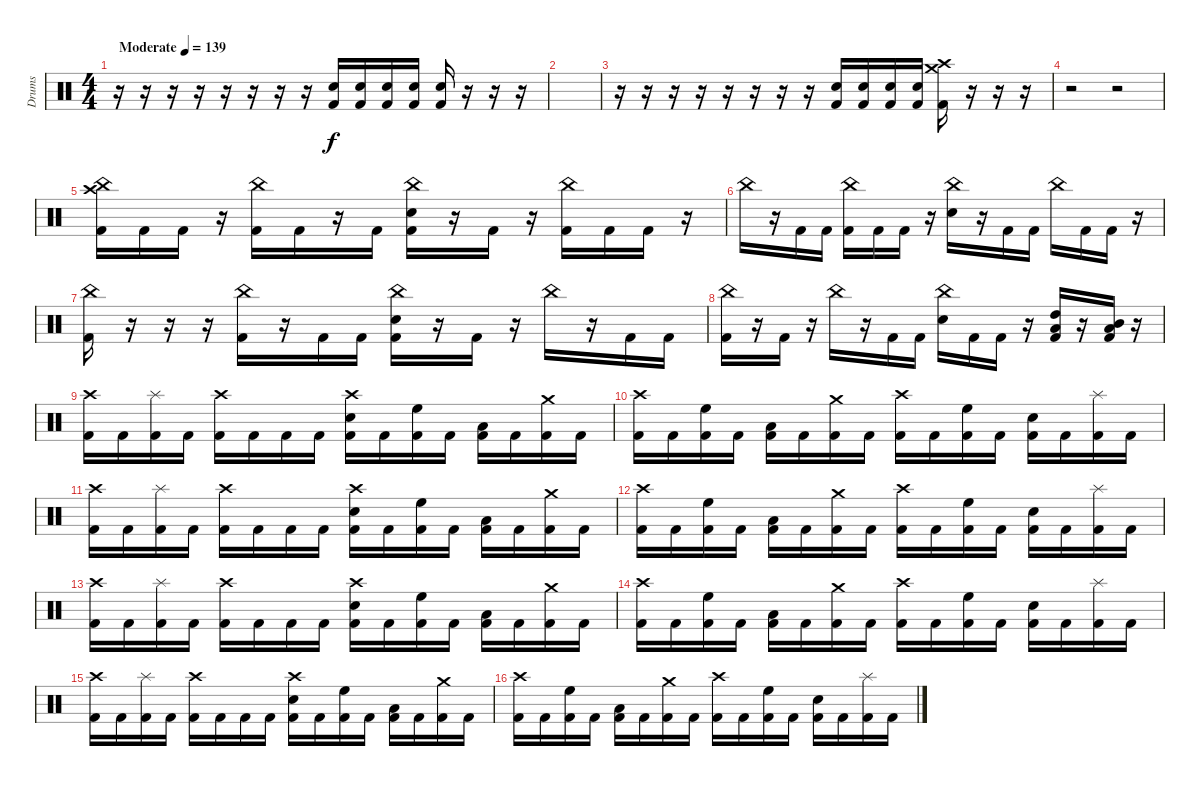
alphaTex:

\track ("Drums" "Drums") {instrument percussion}
\staff {score}
\articulation defaults
\ts (4 4)
\tempo (139 "Moderate")
\clef neutral
\ks c
r.16{dy f} r.16 r.16 r.16 r.16 r.16 r.16 r.16 ("Electric Snare (hit)" "Kick (hit) 2").16 ("Electric Snare (hit)" "Kick (hit) 2").16 ("Electric Snare (hit)" "Kick (hit) 2").16 ("Electric Snare (hit)" "Kick (hit) 2").16 ("Electric Snare (hit)" "Kick (hit) 2").16 r.16 r.16 r.16 |
|
r.16 r.16 r.16 r.16 r.16 r.16 r.16 r.16 ("Electric Snare (hit)" "Kick (hit) 2").16 ("Electric Snare (hit)" "Kick (hit) 2").16 ("Electric Snare (hit)" "Kick (hit) 2").16 ("Electric Snare (hit)" "Kick (hit) 2").16 ("Crash high (hit)" "Crash medium (hit)" "Kick (hit) 2").16 r.16 r.16 r.16 |
r.2 r.2{volume 0} |
("China (hit)" "Crash high (hit)" "Kick (hit) 2").16{volume 13} "Kick (hit) 2".16 "Kick (hit) 2".16 r.16 ("China (hit)" "Kick (hit) 2").16 "Kick (hit) 2".16 r.16 "Kick (hit) 2".16 ("China (hit)" "Electric Snare (hit)" "Kick (hit) 2").16 r.16 "Kick (hit) 2".16 r.16 ("China (hit)" "Kick (hit) 2").16 "Kick (hit) 2".16 "Kick (hit) 2".16 r.16 |
"China (hit)".16 r.16 "Kick (hit) 2".16 "Kick (hit) 2".16 ("China (hit)" "Kick (hit) 2").16 "Kick (hit) 2".16 "Kick (hit) 2".16 r.16 ("China (hit)" "Electric Snare (hit)").16 r.16 "Kick (hit) 2".16 "Kick (hit) 2".16 "China (hit)".16 "Kick (hit) 2".16 "Kick (hit) 2".16 r.16 |
("China (hit)" "Kick (hit) 2").16 r.16 r.16 r.16 ("China (hit)" "Kick (hit) 2").16 r.16 "Kick (hit) 2".16 "Kick (hit) 2".16 ("China (hit)" "Electric Snare (hit)" "Kick (hit) 2").16 r.16 "Kick (hit) 2".16 r.16 "China (hit)".16 r.16 "Kick (hit) 2".16 "Kick (hit) 2".16 |
("China (hit)" "Kick (hit) 2").16 r.16 "Kick (hit) 2".16 r.16 "China (hit)".16 r.16 "Kick (hit) 2".16 "Kick (hit) 2".16 ("China (hit)" "Electric Snare (hit)").16 "Kick (hit) 2".16 "Kick (hit) 2".16 r.16 ("High Tom (hit)" "Low Tom (hit)" "Kick (hit) 2").16 r.16 ("Mid Tom (hit)" "Low Tom (hit)" "Kick (hit) 2").16 r.16 |
("Crash high (hit)" "Kick (hit) 2").16 "Kick (hit) 2".16 ("Splash (hit)" "Kick (hit) 2").16 "Kick (hit) 2".16 ("Crash high (hit)" "Kick (hit) 2").16 "Kick (hit) 2".16 "Kick (hit) 2".16 "Kick (hit) 2".16 ("Crash high (hit)" "Electric Snare (hit)" "Kick (hit) 2").16 "Kick (hit) 2".16 ("High Floor Tom (hit)" "Kick (hit) 2").16 "Kick (hit) 2".16 ("Low Tom (hit)" "Kick (hit) 2").16 "Kick (hit) 2".16 ("Crash medium (hit)" "Kick (hit) 2").16 "Kick (hit) 2".16 |
("Crash high (hit)" "Kick (hit) 2").16 "Kick (hit) 2".16 ("High Floor Tom (hit)" "Kick (hit) 2").16 "Kick (hit) 2".16 ("Low Tom (hit)" "Kick (hit) 2").16 "Kick (hit) 2".16 ("Crash medium (hit)" "Kick (hit) 2").16 "Kick (hit) 2".16 ("Crash high (hit)" "Kick (hit) 2").16 "Kick (hit) 2".16 ("High Floor Tom (hit)" "Kick (hit) 2").16 "Kick (hit) 2".16 ("Electric Snare (hit)" "Kick (hit) 2").16 "Kick (hit) 2".16 ("Splash (hit)" "Kick (hit) 2").16 "Kick (hit) 2".16 |
("Crash high (hit)" "Kick (hit) 2").16 "Kick (hit) 2".16 ("Splash (hit)" "Kick (hit) 2").16 "Kick (hit) 2".16 ("Crash high (hit)" "Kick (hit) 2").16 "Kick (hit) 2".16 "Kick (hit) 2".16 "Kick (hit) 2".16 ("Crash high (hit)" "Electric Snare (hit)" "Kick (hit) 2").16 "Kick (hit) 2".16 ("High Floor Tom (hit)" "Kick (hit) 2").16 "Kick (hit) 2".16 ("Low Tom (hit)" "Kick (hit) 2").16 "Kick (hit) 2".16 ("Crash medium (hit)" "Kick (hit) 2").16 "Kick (hit) 2".16 |
("Crash high (hit)" "Kick (hit) 2").16 "Kick (hit) 2".16 ("High Floor Tom (hit)" "Kick (hit) 2").16 "Kick (hit) 2".16 ("Low Tom (hit)" "Kick (hit) 2").16 "Kick (hit) 2".16 ("Crash medium (hit)" "Kick (hit) 2").16 "Kick (hit) 2".16 ("Crash high (hit)" "Kick (hit) 2").16 "Kick (hit) 2".16 ("High Floor Tom (hit)" "Kick (hit) 2").16 "Kick (hit) 2".16 ("Electric Snare (hit)" "Kick (hit) 2").16 "Kick (hit) 2".16 ("Splash (hit)" "Kick (hit) 2").16 "Kick (hit) 2".16 |
("Crash high (hit)" "Kick (hit) 2").16 "Kick (hit) 2".16 ("Splash (hit)" "Kick (hit) 2").16 "Kick (hit) 2".16 ("Crash high (hit)" "Kick (hit) 2").16 "Kick (hit) 2".16 "Kick (hit) 2".16 "Kick (hit) 2".16 ("Crash high (hit)" "Electric Snare (hit)" "Kick (hit) 2").16 "Kick (hit) 2".16 ("High Floor Tom (hit)" "Kick (hit) 2").16 "Kick (hit) 2".16 ("Low Tom (hit)" "Kick (hit) 2").16 "Kick (hit) 2".16 ("Crash medium (hit)" "Kick (hit) 2").16 "Kick (hit) 2".16 |
("Crash high (hit)" "Kick (hit) 2").16 "Kick (hit) 2".16 ("High Floor Tom (hit)" "Kick (hit) 2").16 "Kick (hit) 2".16 ("Low Tom (hit)" "Kick (hit) 2").16 "Kick (hit) 2".16 ("Crash medium (hit)" "Kick (hit) 2").16 "Kick (hit) 2".16 ("Crash high (hit)" "Kick (hit) 2").16 "Kick (hit) 2".16 ("High Floor Tom (hit)" "Kick (hit) 2").16 "Kick (hit) 2".16 ("Electric Snare (hit)" "Kick (hit) 2").16 "Kick (hit) 2".16 ("Splash (hit)" "Kick (hit) 2").16 "Kick (hit) 2".16 |
("Crash high (hit)" "Kick (hit) 2").16 "Kick (hit) 2".16 ("Splash (hit)" "Kick (hit) 2").16 "Kick (hit) 2".16 ("Crash high (hit)" "Kick (hit) 2").16 "Kick (hit) 2".16 "Kick (hit) 2".16 "Kick (hit) 2".16 ("Crash high (hit)" "Electric Snare (hit)" "Kick (hit) 2").16 "Kick (hit) 2".16 ("High Floor Tom (hit)" "Kick (hit) 2").16 "Kick (hit) 2".16 ("Low Tom (hit)" "Kick (hit) 2").16 "Kick (hit) 2".16 ("Crash medium (hit)" "Kick (hit) 2").16 "Kick (hit) 2".16 |
("Crash high (hit)" "Kick (hit) 2").16 "Kick (hit) 2".16 ("High Floor Tom (hit)" "Kick (hit) 2").16 "Kick (hit) 2".16 ("Low Tom (hit)" "Kick (hit) 2").16 "Kick (hit) 2".16 ("Crash medium (hit)" "Kick (hit) 2").16 "Kick (hit) 2".16 ("Crash high (hit)" "Kick (hit) 2").16 "Kick (hit) 2".16 ("High Floor Tom (hit)" "Kick (hit) 2").16 "Kick (hit) 2".16 ("Electric Snare (hit)" "Kick (hit) 2").16 "Kick (hit) 2".16 ("Splash (hit)" "Kick (hit) 2").16 "Kick (hit) 2".16
